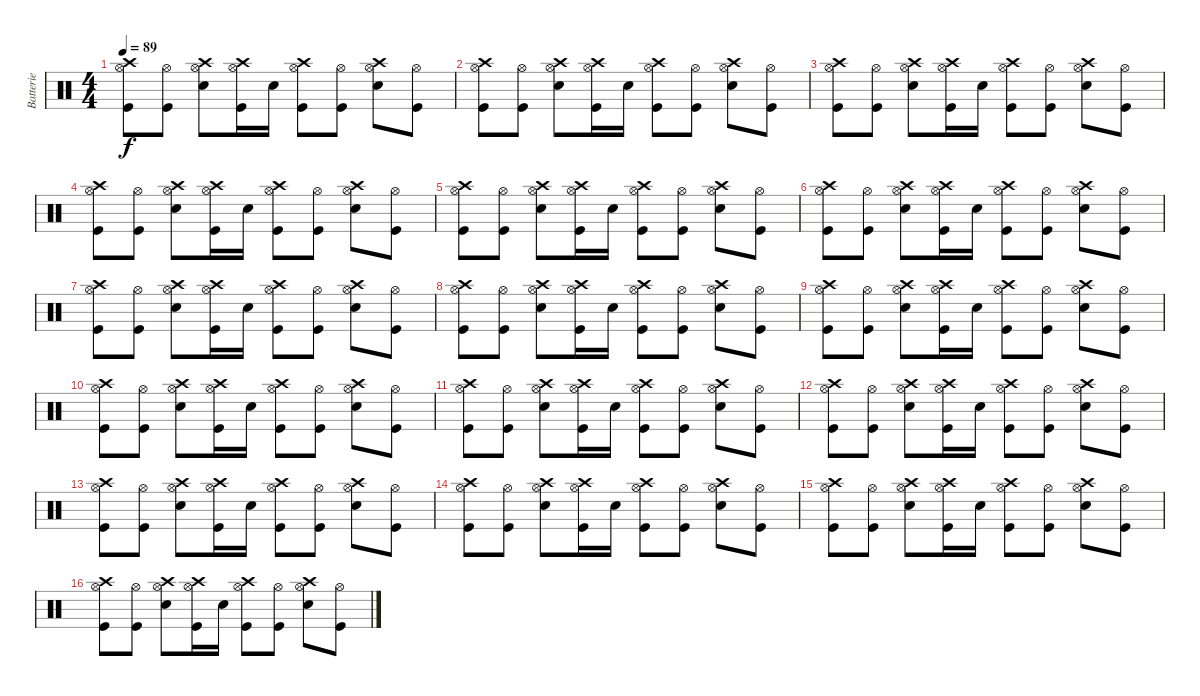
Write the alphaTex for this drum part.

\track ("Batterie" "Batterie") {instrument percussion}
\staff {score}
\articulation defaults
\ts (4 4)
\tempo 89
\clef neutral
\ks c
("Kick (hit)" "Hi-Hat (open)" "Crash high (hit)").8{dy f} ("Kick (hit)" "Hi-Hat (open)").8 ("Electric Snare (hit)" "Hi-Hat (open)" "Crash high (hit)").8 ("Kick (hit)" "Hi-Hat (open)" "Crash high (hit)").16 "Electric Snare (hit)".16 ("Kick (hit)" "Hi-Hat (open)" "Crash high (hit)").8 ("Kick (hit)" "Hi-Hat (open)").8 ("Electric Snare (hit)" "Hi-Hat (open)" "Crash high (hit)").8 ("Kick (hit)" "Hi-Hat (open)").8 |
("Kick (hit)" "Hi-Hat (open)" "Crash high (hit)").8 ("Kick (hit)" "Hi-Hat (open)").8 ("Electric Snare (hit)" "Hi-Hat (open)" "Crash high (hit)").8 ("Kick (hit)" "Hi-Hat (open)" "Crash high (hit)").16 "Electric Snare (hit)".16 ("Kick (hit)" "Hi-Hat (open)" "Crash high (hit)").8 ("Kick (hit)" "Hi-Hat (open)").8 ("Electric Snare (hit)" "Hi-Hat (open)" "Crash high (hit)").8 ("Kick (hit)" "Hi-Hat (open)").8 |
("Kick (hit)" "Hi-Hat (open)" "Crash high (hit)").8 ("Kick (hit)" "Hi-Hat (open)").8 ("Electric Snare (hit)" "Hi-Hat (open)" "Crash high (hit)").8 ("Kick (hit)" "Hi-Hat (open)" "Crash high (hit)").16 "Electric Snare (hit)".16 ("Kick (hit)" "Hi-Hat (open)" "Crash high (hit)").8 ("Kick (hit)" "Hi-Hat (open)").8 ("Electric Snare (hit)" "Hi-Hat (open)" "Crash high (hit)").8 ("Kick (hit)" "Hi-Hat (open)").8 |
("Kick (hit)" "Hi-Hat (open)" "Crash high (hit)").8 ("Kick (hit)" "Hi-Hat (open)").8 ("Electric Snare (hit)" "Hi-Hat (open)" "Crash high (hit)").8 ("Kick (hit)" "Hi-Hat (open)" "Crash high (hit)").16 "Electric Snare (hit)".16 ("Kick (hit)" "Hi-Hat (open)" "Crash high (hit)").8 ("Kick (hit)" "Hi-Hat (open)").8 ("Electric Snare (hit)" "Hi-Hat (open)" "Crash high (hit)").8 ("Kick (hit)" "Hi-Hat (open)").8 |
("Kick (hit)" "Hi-Hat (open)" "Crash high (hit)").8 ("Kick (hit)" "Hi-Hat (open)").8 ("Electric Snare (hit)" "Hi-Hat (open)" "Crash high (hit)").8 ("Kick (hit)" "Hi-Hat (open)" "Crash high (hit)").16 "Electric Snare (hit)".16 ("Kick (hit)" "Hi-Hat (open)" "Crash high (hit)").8 ("Kick (hit)" "Hi-Hat (open)").8 ("Electric Snare (hit)" "Hi-Hat (open)" "Crash high (hit)").8 ("Kick (hit)" "Hi-Hat (open)").8 |
("Kick (hit)" "Hi-Hat (open)" "Crash high (hit)").8 ("Kick (hit)" "Hi-Hat (open)").8 ("Electric Snare (hit)" "Hi-Hat (open)" "Crash high (hit)").8 ("Kick (hit)" "Hi-Hat (open)" "Crash high (hit)").16 "Electric Snare (hit)".16 ("Kick (hit)" "Hi-Hat (open)" "Crash high (hit)").8 ("Kick (hit)" "Hi-Hat (open)").8 ("Electric Snare (hit)" "Hi-Hat (open)" "Crash high (hit)").8 ("Kick (hit)" "Hi-Hat (open)").8 |
("Kick (hit)" "Hi-Hat (open)" "Crash high (hit)").8 ("Kick (hit)" "Hi-Hat (open)").8 ("Electric Snare (hit)" "Hi-Hat (open)" "Crash high (hit)").8 ("Kick (hit)" "Hi-Hat (open)" "Crash high (hit)").16 "Electric Snare (hit)".16 ("Kick (hit)" "Hi-Hat (open)" "Crash high (hit)").8 ("Kick (hit)" "Hi-Hat (open)").8 ("Electric Snare (hit)" "Hi-Hat (open)" "Crash high (hit)").8 ("Kick (hit)" "Hi-Hat (open)").8 |
("Kick (hit)" "Hi-Hat (open)" "Crash high (hit)").8 ("Kick (hit)" "Hi-Hat (open)").8 ("Electric Snare (hit)" "Hi-Hat (open)" "Crash high (hit)").8 ("Kick (hit)" "Hi-Hat (open)" "Crash high (hit)").16 "Electric Snare (hit)".16 ("Kick (hit)" "Hi-Hat (open)" "Crash high (hit)").8 ("Kick (hit)" "Hi-Hat (open)").8 ("Electric Snare (hit)" "Hi-Hat (open)" "Crash high (hit)").8 ("Kick (hit)" "Hi-Hat (open)").8 |
("Kick (hit)" "Hi-Hat (open)" "Crash high (hit)").8 ("Kick (hit)" "Hi-Hat (open)").8 ("Electric Snare (hit)" "Hi-Hat (open)" "Crash high (hit)").8 ("Kick (hit)" "Hi-Hat (open)" "Crash high (hit)").16 "Electric Snare (hit)".16 ("Kick (hit)" "Hi-Hat (open)" "Crash high (hit)").8 ("Kick (hit)" "Hi-Hat (open)").8 ("Electric Snare (hit)" "Hi-Hat (open)" "Crash high (hit)").8 ("Kick (hit)" "Hi-Hat (open)").8 |
("Kick (hit)" "Hi-Hat (open)" "Crash high (hit)").8 ("Kick (hit)" "Hi-Hat (open)").8 ("Electric Snare (hit)" "Hi-Hat (open)" "Crash high (hit)").8 ("Kick (hit)" "Hi-Hat (open)" "Crash high (hit)").16 "Electric Snare (hit)".16 ("Kick (hit)" "Hi-Hat (open)" "Crash high (hit)").8 ("Kick (hit)" "Hi-Hat (open)").8 ("Electric Snare (hit)" "Hi-Hat (open)" "Crash high (hit)").8 ("Kick (hit)" "Hi-Hat (open)").8 |
("Kick (hit)" "Hi-Hat (open)" "Crash high (hit)").8 ("Kick (hit)" "Hi-Hat (open)").8 ("Electric Snare (hit)" "Hi-Hat (open)" "Crash high (hit)").8 ("Kick (hit)" "Hi-Hat (open)" "Crash high (hit)").16 "Electric Snare (hit)".16 ("Kick (hit)" "Hi-Hat (open)" "Crash high (hit)").8 ("Kick (hit)" "Hi-Hat (open)").8 ("Electric Snare (hit)" "Hi-Hat (open)" "Crash high (hit)").8 ("Kick (hit)" "Hi-Hat (open)").8 |
("Kick (hit)" "Hi-Hat (open)" "Crash high (hit)").8 ("Kick (hit)" "Hi-Hat (open)").8 ("Electric Snare (hit)" "Hi-Hat (open)" "Crash high (hit)").8 ("Kick (hit)" "Hi-Hat (open)" "Crash high (hit)").16 "Electric Snare (hit)".16 ("Kick (hit)" "Hi-Hat (open)" "Crash high (hit)").8 ("Kick (hit)" "Hi-Hat (open)").8 ("Electric Snare (hit)" "Hi-Hat (open)" "Crash high (hit)").8 ("Kick (hit)" "Hi-Hat (open)").8 |
("Kick (hit)" "Hi-Hat (open)" "Crash high (hit)").8 ("Kick (hit)" "Hi-Hat (open)").8 ("Electric Snare (hit)" "Hi-Hat (open)" "Crash high (hit)").8 ("Kick (hit)" "Hi-Hat (open)" "Crash high (hit)").16 "Electric Snare (hit)".16 ("Kick (hit)" "Hi-Hat (open)" "Crash high (hit)").8 ("Kick (hit)" "Hi-Hat (open)").8 ("Electric Snare (hit)" "Hi-Hat (open)" "Crash high (hit)").8 ("Kick (hit)" "Hi-Hat (open)").8 |
("Kick (hit)" "Hi-Hat (open)" "Crash high (hit)").8 ("Kick (hit)" "Hi-Hat (open)").8 ("Electric Snare (hit)" "Hi-Hat (open)" "Crash high (hit)").8 ("Kick (hit)" "Hi-Hat (open)" "Crash high (hit)").16 "Electric Snare (hit)".16 ("Kick (hit)" "Hi-Hat (open)" "Crash high (hit)").8 ("Kick (hit)" "Hi-Hat (open)").8 ("Electric Snare (hit)" "Hi-Hat (open)" "Crash high (hit)").8 ("Kick (hit)" "Hi-Hat (open)").8 |
("Kick (hit)" "Hi-Hat (open)" "Crash high (hit)").8 ("Kick (hit)" "Hi-Hat (open)").8 ("Electric Snare (hit)" "Hi-Hat (open)" "Crash high (hit)").8 ("Kick (hit)" "Hi-Hat (open)" "Crash high (hit)").16 "Electric Snare (hit)".16 ("Kick (hit)" "Hi-Hat (open)" "Crash high (hit)").8 ("Kick (hit)" "Hi-Hat (open)").8 ("Electric Snare (hit)" "Hi-Hat (open)" "Crash high (hit)").8 ("Kick (hit)" "Hi-Hat (open)").8 |
("Kick (hit)" "Hi-Hat (open)" "Crash high (hit)").8 ("Kick (hit)" "Hi-Hat (open)").8 ("Electric Snare (hit)" "Hi-Hat (open)" "Crash high (hit)").8 ("Kick (hit)" "Hi-Hat (open)" "Crash high (hit)").16 "Electric Snare (hit)".16 ("Kick (hit)" "Hi-Hat (open)" "Crash high (hit)").8 ("Kick (hit)" "Hi-Hat (open)").8 ("Electric Snare (hit)" "Hi-Hat (open)" "Crash high (hit)").8 ("Kick (hit)" "Hi-Hat (open)").8
